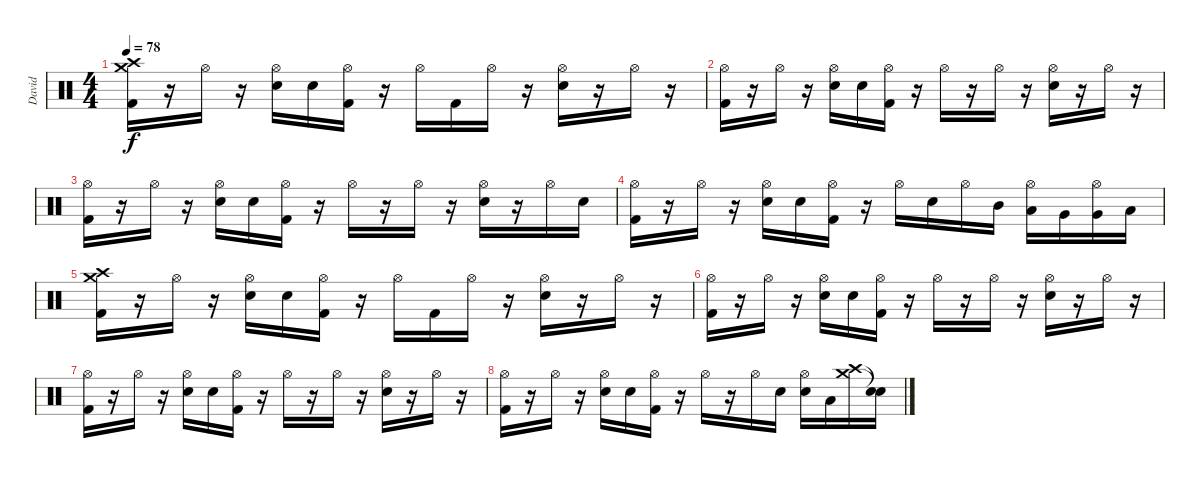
\track ("David" "David") {instrument percussion}
\staff {score}
\articulation defaults
\ts (4 4)
\tempo 78
\clef neutral
\ks c
("Crash high (hit)" "Crash medium (hit)" "Kick (hit) 2").16{dy f} r.16 "Hi-Hat (open)".16 r.16 ("Hi-Hat (open)" "Snare (hit) 2").16 "Snare (hit) 2".16 ("Hi-Hat (open)" "Kick (hit) 2").16 r.16 "Hi-Hat (open)".16 "Kick (hit) 2".16 "Hi-Hat (open)".16 r.16 ("Hi-Hat (open)" "Snare (hit) 2").16 r.16 "Hi-Hat (open)".16 r.16 |
("Hi-Hat (open)" "Kick (hit) 2").16 r.16 "Hi-Hat (open)".16 r.16 ("Hi-Hat (open)" "Snare (hit) 2").16 "Snare (hit) 2".16 ("Hi-Hat (open)" "Kick (hit) 2").16 r.16 "Hi-Hat (open)".16 r.16 "Hi-Hat (open)".16 r.16 ("Hi-Hat (open)" "Snare (hit) 2").16 r.16 "Hi-Hat (open)".16 r.16 |
("Hi-Hat (open)" "Kick (hit) 2").16 r.16 "Hi-Hat (open)".16 r.16 ("Hi-Hat (open)" "Snare (hit) 2").16 "Snare (hit) 2".16 ("Hi-Hat (open)" "Kick (hit) 2").16 r.16 "Hi-Hat (open)".16 r.16 "Hi-Hat (open)".16 r.16 ("Hi-Hat (open)" "Snare (hit) 2").16 r.16 "Hi-Hat (open)".16 "Snare (hit) 2".16 |
("Hi-Hat (open)" "Kick (hit) 2").16 r.16 "Hi-Hat (open)".16 r.16 ("Hi-Hat (open)" "Snare (hit) 2").16 "Snare (hit) 2".16 ("Hi-Hat (open)" "Kick (hit) 2").16 r.16 "Hi-Hat (open)".16 "Snare (hit) 2".16 "Hi-Hat (open)".16 "Mid Tom (hit)".16 ("Hi-Hat (open)" "Low Tom (hit)").16 "Very Low Tom (hit)".16 ("Hi-Hat (open)" "Very Low Tom (hit)").16 "Low Floor Tom (hit)".16 |
("Crash high (hit)" "Crash medium (hit)" "Kick (hit) 2").16 r.16 "Hi-Hat (open)".16 r.16 ("Hi-Hat (open)" "Snare (hit) 2").16 "Snare (hit) 2".16 ("Hi-Hat (open)" "Kick (hit) 2").16 r.16 "Hi-Hat (open)".16 "Kick (hit) 2".16 "Hi-Hat (open)".16 r.16 ("Hi-Hat (open)" "Snare (hit) 2").16 r.16 "Hi-Hat (open)".16 r.16 |
("Hi-Hat (open)" "Kick (hit) 2").16 r.16 "Hi-Hat (open)".16 r.16 ("Hi-Hat (open)" "Snare (hit) 2").16 "Snare (hit) 2".16 ("Hi-Hat (open)" "Kick (hit) 2").16 r.16 "Hi-Hat (open)".16 r.16 "Hi-Hat (open)".16 r.16 ("Hi-Hat (open)" "Snare (hit) 2").16 r.16 "Hi-Hat (open)".16 r.16 |
("Hi-Hat (open)" "Kick (hit) 2").16 r.16 "Hi-Hat (open)".16 r.16 ("Hi-Hat (open)" "Snare (hit) 2").16 "Snare (hit) 2".16 ("Hi-Hat (open)" "Kick (hit) 2").16 r.16 "Hi-Hat (open)".16 r.16 "Hi-Hat (open)".16 r.16 ("Hi-Hat (open)" "Snare (hit) 2").16 r.16 "Hi-Hat (open)".16 r.16 |
("Hi-Hat (open)" "Kick (hit) 2").16 r.16 "Hi-Hat (open)".16 r.16 ("Hi-Hat (open)" "Snare (hit) 2").16 "Snare (hit) 2".16 ("Hi-Hat (open)" "Kick (hit) 2").16 r.16 "Hi-Hat (open)".16 r.16 "Hi-Hat (open)".16 "Snare (hit) 2".16 ("Hi-Hat (open)" "Snare (hit) 2").16 "Low Tom (hit)".16 ("Crash high (hit)" "Crash medium (hit)").16 ("Snare (hit)"{t} "Snare (hit)"{t}).16
